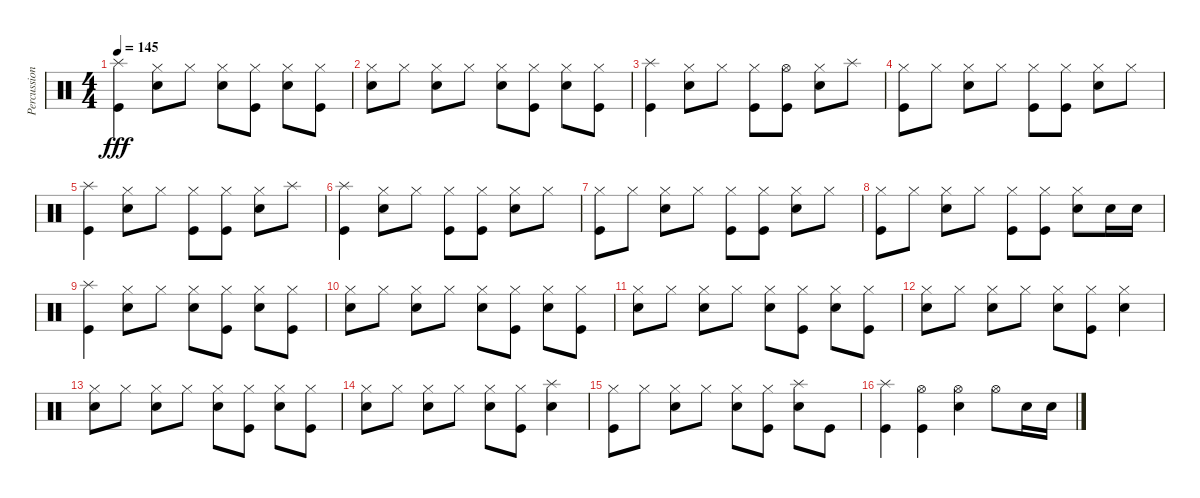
\track ("Percussion" "Percussion") {instrument percussion}
\staff {score}
\articulation defaults
\ts (4 4)
\tempo 145
\clef neutral
\ks c
("Splash (hit)" "Kick (hit)").4{dy fff} ("Hi-Hat (closed)" "Snare (hit) 2").8 "Hi-Hat (closed)".8 ("Hi-Hat (closed)" "Snare (hit) 2").8 ("Hi-Hat (closed)" "Kick (hit)").8 ("Hi-Hat (closed)" "Snare (hit) 2").8 ("Hi-Hat (closed)" "Kick (hit)").8 |
("Hi-Hat (closed)" "Snare (hit) 2").8 "Hi-Hat (closed)".8 ("Hi-Hat (closed)" "Snare (hit) 2").8 "Hi-Hat (closed)".8 ("Hi-Hat (closed)" "Snare (hit) 2").8 ("Hi-Hat (closed)" "Kick (hit)").8 ("Hi-Hat (closed)" "Snare (hit) 2").8 ("Hi-Hat (closed)" "Kick (hit)").8 |
("Splash (hit)" "Kick (hit)").4 ("Hi-Hat (closed)" "Snare (hit) 2").8 "Hi-Hat (closed)".8 ("Hi-Hat (closed)" "Kick (hit)").8 ("Hi-Hat (open)" "Kick (hit)").8 ("Hi-Hat (closed)" "Snare (hit) 2").8 "Splash (hit)".8 |
("Hi-Hat (closed)" "Kick (hit)").8 "Hi-Hat (closed)".8 ("Hi-Hat (closed)" "Snare (hit) 2").8 "Hi-Hat (closed)".8 ("Hi-Hat (closed)" "Kick (hit)").8 ("Hi-Hat (closed)" "Kick (hit)").8 ("Hi-Hat (closed)" "Snare (hit) 2").8 "Hi-Hat (closed)".8 |
("Splash (hit)" "Kick (hit)").4 ("Hi-Hat (closed)" "Snare (hit) 2").8 "Hi-Hat (closed)".8 ("Hi-Hat (closed)" "Kick (hit)").8 ("Hi-Hat (closed)" "Kick (hit)").8 ("Hi-Hat (closed)" "Snare (hit) 2").8 "Splash (hit)".8 |
("Splash (hit)" "Kick (hit)").4 ("Hi-Hat (closed)" "Snare (hit) 2").8 "Hi-Hat (closed)".8 ("Hi-Hat (closed)" "Kick (hit)").8 ("Hi-Hat (closed)" "Kick (hit)").8 ("Hi-Hat (closed)" "Snare (hit) 2").8 "Hi-Hat (closed)".8 |
("Hi-Hat (closed)" "Kick (hit)").8 "Hi-Hat (closed)".8 ("Hi-Hat (closed)" "Snare (hit) 2").8 "Hi-Hat (closed)".8 ("Hi-Hat (closed)" "Kick (hit)").8 ("Hi-Hat (closed)" "Kick (hit)").8 ("Hi-Hat (closed)" "Snare (hit) 2").8 "Hi-Hat (closed)".8 |
("Hi-Hat (closed)" "Kick (hit)").8 "Hi-Hat (closed)".8 ("Hi-Hat (closed)" "Snare (hit) 2").8 "Hi-Hat (closed)".8 ("Hi-Hat (closed)" "Kick (hit)").8 ("Hi-Hat (closed)" "Kick (hit)").8 ("Hi-Hat (closed)" "Snare (hit) 2").8 "Snare (hit) 2".16 "Snare (hit) 2".16 |
("Splash (hit)" "Kick (hit)").4 ("Hi-Hat (closed)" "Snare (hit) 2").8 "Hi-Hat (closed)".8 ("Hi-Hat (closed)" "Snare (hit) 2").8 ("Hi-Hat (closed)" "Kick (hit)").8 ("Hi-Hat (closed)" "Snare (hit) 2").8 ("Hi-Hat (closed)" "Kick (hit)").8 |
("Hi-Hat (closed)" "Snare (hit) 2").8 "Hi-Hat (closed)".8 ("Hi-Hat (closed)" "Snare (hit) 2").8 "Hi-Hat (closed)".8 ("Hi-Hat (closed)" "Snare (hit) 2").8 ("Hi-Hat (closed)" "Kick (hit)").8 ("Hi-Hat (closed)" "Snare (hit) 2").8 ("Hi-Hat (closed)" "Kick (hit)").8 |
("Hi-Hat (closed)" "Snare (hit) 2").8 "Hi-Hat (closed)".8 ("Hi-Hat (closed)" "Snare (hit) 2").8 "Hi-Hat (closed)".8 ("Hi-Hat (closed)" "Snare (hit) 2").8 ("Hi-Hat (closed)" "Kick (hit)").8 ("Hi-Hat (closed)" "Snare (hit) 2").8 ("Hi-Hat (closed)" "Kick (hit)").8 |
("Hi-Hat (closed)" "Snare (hit) 2").8 "Hi-Hat (closed)".8 ("Hi-Hat (closed)" "Snare (hit) 2").8 "Hi-Hat (closed)".8 ("Hi-Hat (closed)" "Snare (hit) 2").8 ("Hi-Hat (closed)" "Kick (hit)").8 ("Hi-Hat (closed)" "Snare (hit) 2").4 |
("Hi-Hat (closed)" "Snare (hit) 2").8 "Hi-Hat (closed)".8 ("Hi-Hat (closed)" "Snare (hit) 2").8 "Hi-Hat (closed)".8 ("Hi-Hat (closed)" "Snare (hit) 2").8 ("Hi-Hat (closed)" "Kick (hit)").8 ("Hi-Hat (closed)" "Snare (hit) 2").8 ("Hi-Hat (closed)" "Kick (hit)").8 |
("Hi-Hat (closed)" "Snare (hit) 2").8 "Hi-Hat (closed)".8 ("Hi-Hat (closed)" "Snare (hit) 2").8 "Hi-Hat (closed)".8 ("Hi-Hat (closed)" "Snare (hit) 2").8 ("Hi-Hat (closed)" "Kick (hit)").8 ("Splash (hit)" "Snare (hit) 2").4 |
("Hi-Hat (closed)" "Kick (hit)").8 "Hi-Hat (closed)".8 ("Hi-Hat (closed)" "Snare (hit) 2").8 "Hi-Hat (closed)".8 ("Hi-Hat (closed)" "Snare (hit) 2").8 ("Hi-Hat (closed)" "Kick (hit)").8 ("Splash (hit)" "Snare (hit) 2").8 "Kick (hit)".8 |
("Splash (hit)" "Kick (hit)").4 ("Hi-Hat (open)" "Kick (hit)").4 ("Hi-Hat (open)" "Snare (hit) 2").4 "Hi-Hat (open)".8 "Snare (hit) 2".16 "Snare (hit) 2".16
